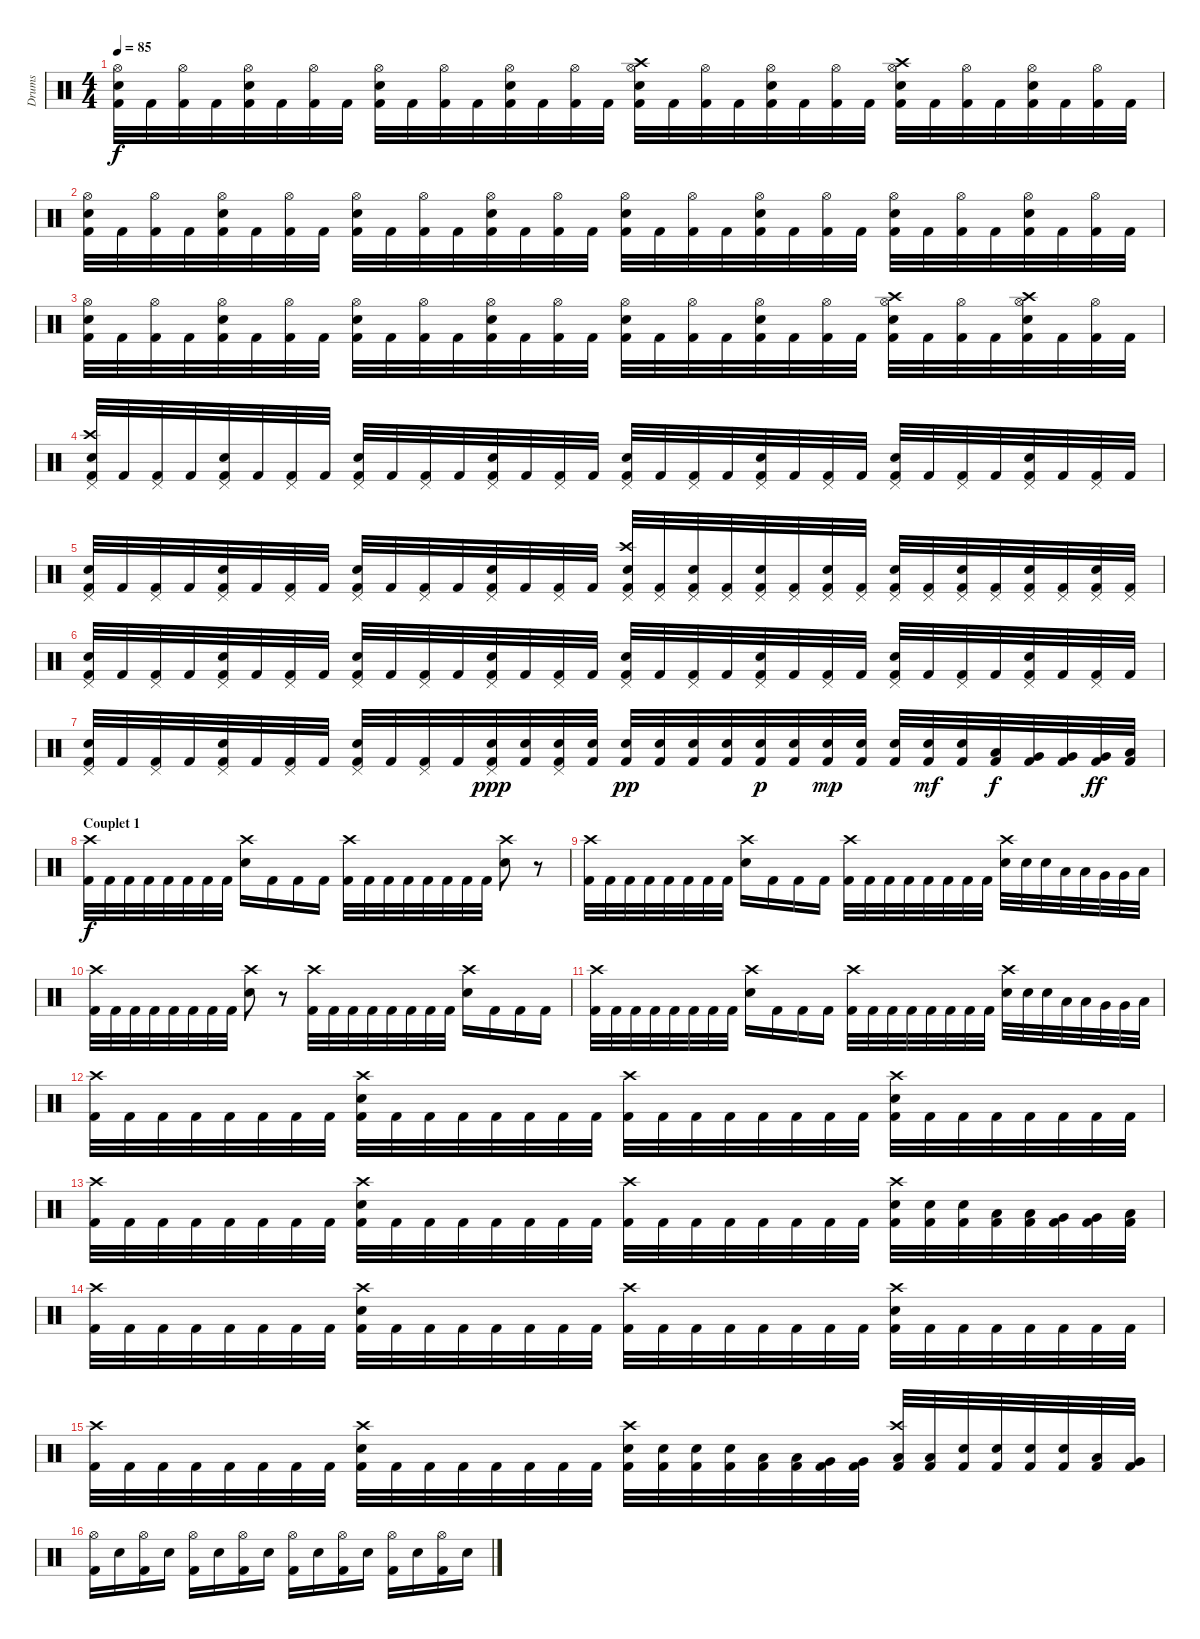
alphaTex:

\track ("Drums" "Drums") {instrument percussion}
\staff {score}
\articulation defaults
\ts (4 4)
\tempo 85
\clef neutral
\ks c
("Hi-Hat (open)" "Electric Snare (hit)" "Kick (hit) 2").32{dy f} "Kick (hit) 2".32 ("Hi-Hat (open)" "Kick (hit) 2").32 "Kick (hit) 2".32 ("Hi-Hat (open)" "Electric Snare (hit)" "Kick (hit) 2").32 "Kick (hit) 2".32 ("Hi-Hat (open)" "Kick (hit) 2").32 "Kick (hit) 2".32 ("Hi-Hat (open)" "Electric Snare (hit)" "Kick (hit) 2").32 "Kick (hit) 2".32 ("Hi-Hat (open)" "Kick (hit) 2").32 "Kick (hit) 2".32 ("Hi-Hat (open)" "Electric Snare (hit)" "Kick (hit) 2").32 "Kick (hit) 2".32 ("Hi-Hat (open)" "Kick (hit) 2").32 "Kick (hit) 2".32 ("Hi-Hat (open)" "Electric Snare (hit)" "Crash high (hit)" "Kick (hit) 2").32 "Kick (hit) 2".32 ("Hi-Hat (open)" "Kick (hit) 2").32 "Kick (hit) 2".32 ("Hi-Hat (open)" "Electric Snare (hit)" "Kick (hit) 2").32 "Kick (hit) 2".32 ("Hi-Hat (open)" "Kick (hit) 2").32 "Kick (hit) 2".32 ("Hi-Hat (open)" "Electric Snare (hit)" "Crash high (hit)" "Kick (hit) 2").32 "Kick (hit) 2".32 ("Hi-Hat (open)" "Kick (hit) 2").32 "Kick (hit) 2".32 ("Hi-Hat (open)" "Electric Snare (hit)" "Kick (hit) 2").32 "Kick (hit) 2".32 ("Hi-Hat (open)" "Kick (hit) 2").32 "Kick (hit) 2".32 |
("Hi-Hat (open)" "Electric Snare (hit)" "Kick (hit) 2").32 "Kick (hit) 2".32 ("Hi-Hat (open)" "Kick (hit) 2").32 "Kick (hit) 2".32 ("Hi-Hat (open)" "Electric Snare (hit)" "Kick (hit) 2").32 "Kick (hit) 2".32 ("Hi-Hat (open)" "Kick (hit) 2").32 "Kick (hit) 2".32 ("Hi-Hat (open)" "Electric Snare (hit)" "Kick (hit) 2").32 "Kick (hit) 2".32 ("Hi-Hat (open)" "Kick (hit) 2").32 "Kick (hit) 2".32 ("Hi-Hat (open)" "Electric Snare (hit)" "Kick (hit) 2").32 "Kick (hit) 2".32 ("Hi-Hat (open)" "Kick (hit) 2").32 "Kick (hit) 2".32 ("Hi-Hat (open)" "Electric Snare (hit)" "Kick (hit) 2").32 "Kick (hit) 2".32 ("Hi-Hat (open)" "Kick (hit) 2").32 "Kick (hit) 2".32 ("Hi-Hat (open)" "Electric Snare (hit)" "Kick (hit) 2").32 "Kick (hit) 2".32 ("Hi-Hat (open)" "Kick (hit) 2").32 "Kick (hit) 2".32 ("Hi-Hat (open)" "Electric Snare (hit)" "Kick (hit) 2").32 "Kick (hit) 2".32 ("Hi-Hat (open)" "Kick (hit) 2").32 "Kick (hit) 2".32 ("Hi-Hat (open)" "Electric Snare (hit)" "Kick (hit) 2").32 "Kick (hit) 2".32 ("Hi-Hat (open)" "Kick (hit) 2").32 "Kick (hit) 2".32 |
("Hi-Hat (open)" "Electric Snare (hit)" "Kick (hit) 2").32 "Kick (hit) 2".32 ("Hi-Hat (open)" "Kick (hit) 2").32 "Kick (hit) 2".32 ("Hi-Hat (open)" "Electric Snare (hit)" "Kick (hit) 2").32 "Kick (hit) 2".32 ("Hi-Hat (open)" "Kick (hit) 2").32 "Kick (hit) 2".32 ("Hi-Hat (open)" "Electric Snare (hit)" "Kick (hit) 2").32 "Kick (hit) 2".32 ("Hi-Hat (open)" "Kick (hit) 2").32 "Kick (hit) 2".32 ("Hi-Hat (open)" "Electric Snare (hit)" "Kick (hit) 2").32 "Kick (hit) 2".32 ("Hi-Hat (open)" "Kick (hit) 2").32 "Kick (hit) 2".32 ("Hi-Hat (open)" "Electric Snare (hit)" "Kick (hit) 2").32 "Kick (hit) 2".32 ("Hi-Hat (open)" "Kick (hit) 2").32 "Kick (hit) 2".32 ("Hi-Hat (open)" "Electric Snare (hit)" "Kick (hit) 2").32 "Kick (hit) 2".32 ("Hi-Hat (open)" "Kick (hit) 2").32 "Kick (hit) 2".32 ("Hi-Hat (open)" "Electric Snare (hit)" "Crash high (hit)" "Kick (hit) 2").32 "Kick (hit) 2".32 ("Hi-Hat (open)" "Kick (hit) 2").32 "Kick (hit) 2".32 ("Hi-Hat (open)" "Electric Snare (hit)" "Crash high (hit)" "Kick (hit) 2").32 "Kick (hit) 2".32 ("Hi-Hat (open)" "Kick (hit) 2").32 "Kick (hit) 2".32 |
("Pedal Hi-Hat (hit)" "Electric Snare (hit)" "Crash high (hit)" "Kick (hit) 2").32 "Kick (hit) 2".32 ("Pedal Hi-Hat (hit)" "Kick (hit) 2").32 "Kick (hit) 2".32 ("Pedal Hi-Hat (hit)" "Electric Snare (hit)" "Kick (hit) 2").32 "Kick (hit) 2".32 ("Pedal Hi-Hat (hit)" "Kick (hit) 2").32 "Kick (hit) 2".32 ("Pedal Hi-Hat (hit)" "Electric Snare (hit)" "Kick (hit) 2").32 "Kick (hit) 2".32 ("Pedal Hi-Hat (hit)" "Kick (hit) 2").32 "Kick (hit) 2".32 ("Pedal Hi-Hat (hit)" "Electric Snare (hit)" "Kick (hit) 2").32 "Kick (hit) 2".32 ("Pedal Hi-Hat (hit)" "Kick (hit) 2").32 "Kick (hit) 2".32 ("Pedal Hi-Hat (hit)" "Electric Snare (hit)" "Kick (hit) 2").32 "Kick (hit) 2".32 ("Pedal Hi-Hat (hit)" "Kick (hit) 2").32 "Kick (hit) 2".32 ("Pedal Hi-Hat (hit)" "Electric Snare (hit)" "Kick (hit) 2").32 "Kick (hit) 2".32 ("Pedal Hi-Hat (hit)" "Kick (hit) 2").32 "Kick (hit) 2".32 ("Pedal Hi-Hat (hit)" "Electric Snare (hit)" "Kick (hit) 2").32 "Kick (hit) 2".32 ("Pedal Hi-Hat (hit)" "Kick (hit) 2").32 "Kick (hit) 2".32 ("Pedal Hi-Hat (hit)" "Electric Snare (hit)" "Kick (hit) 2").32 "Kick (hit) 2".32 ("Pedal Hi-Hat (hit)" "Kick (hit) 2").32 "Kick (hit) 2".32 |
("Pedal Hi-Hat (hit)" "Electric Snare (hit)" "Kick (hit) 2").32 "Kick (hit) 2".32 ("Pedal Hi-Hat (hit)" "Kick (hit) 2").32 "Kick (hit) 2".32 ("Pedal Hi-Hat (hit)" "Electric Snare (hit)" "Kick (hit) 2").32 "Kick (hit) 2".32 ("Pedal Hi-Hat (hit)" "Kick (hit) 2").32 "Kick (hit) 2".32 ("Pedal Hi-Hat (hit)" "Electric Snare (hit)" "Kick (hit) 2").32 "Kick (hit) 2".32 ("Pedal Hi-Hat (hit)" "Kick (hit) 2").32 "Kick (hit) 2".32 ("Pedal Hi-Hat (hit)" "Electric Snare (hit)" "Kick (hit) 2").32 "Kick (hit) 2".32 ("Pedal Hi-Hat (hit)" "Kick (hit) 2").32 "Kick (hit) 2".32 ("Pedal Hi-Hat (hit)" "Electric Snare (hit)" "Crash high (hit)" "Kick (hit) 2").32 ("Pedal Hi-Hat (hit)" "Kick (hit) 2").32 ("Pedal Hi-Hat (hit)" "Electric Snare (hit)" "Kick (hit) 2").32 ("Pedal Hi-Hat (hit)" "Kick (hit) 2").32 ("Pedal Hi-Hat (hit)" "Electric Snare (hit)" "Kick (hit) 2").32 ("Pedal Hi-Hat (hit)" "Kick (hit) 2").32 ("Pedal Hi-Hat (hit)" "Electric Snare (hit)" "Kick (hit) 2").32 ("Pedal Hi-Hat (hit)" "Kick (hit) 2").32 ("Pedal Hi-Hat (hit)" "Electric Snare (hit)" "Kick (hit) 2").32 ("Pedal Hi-Hat (hit)" "Kick (hit) 2").32 ("Pedal Hi-Hat (hit)" "Electric Snare (hit)" "Kick (hit) 2").32 ("Pedal Hi-Hat (hit)" "Kick (hit) 2").32 ("Pedal Hi-Hat (hit)" "Electric Snare (hit)" "Kick (hit) 2").32 ("Pedal Hi-Hat (hit)" "Kick (hit) 2").32 ("Pedal Hi-Hat (hit)" "Electric Snare (hit)" "Kick (hit) 2").32 ("Pedal Hi-Hat (hit)" "Kick (hit) 2").32 |
("Pedal Hi-Hat (hit)" "Electric Snare (hit)" "Kick (hit) 2").32 "Kick (hit) 2".32 ("Pedal Hi-Hat (hit)" "Kick (hit) 2").32 "Kick (hit) 2".32 ("Pedal Hi-Hat (hit)" "Electric Snare (hit)" "Kick (hit) 2").32 "Kick (hit) 2".32 ("Pedal Hi-Hat (hit)" "Kick (hit) 2").32 "Kick (hit) 2".32 ("Pedal Hi-Hat (hit)" "Electric Snare (hit)" "Kick (hit) 2").32 "Kick (hit) 2".32 ("Pedal Hi-Hat (hit)" "Kick (hit) 2").32 "Kick (hit) 2".32 ("Pedal Hi-Hat (hit)" "Electric Snare (hit)" "Kick (hit) 2").32 "Kick (hit) 2".32 ("Pedal Hi-Hat (hit)" "Kick (hit) 2").32 "Kick (hit) 2".32 ("Pedal Hi-Hat (hit)" "Electric Snare (hit)" "Kick (hit) 2").32 "Kick (hit) 2".32 ("Pedal Hi-Hat (hit)" "Kick (hit) 2").32 "Kick (hit) 2".32 ("Pedal Hi-Hat (hit)" "Electric Snare (hit)" "Kick (hit) 2").32 "Kick (hit) 2".32 ("Pedal Hi-Hat (hit)" "Kick (hit) 2").32 "Kick (hit) 2".32 ("Pedal Hi-Hat (hit)" "Electric Snare (hit)" "Kick (hit) 2").32 "Kick (hit) 2".32 ("Pedal Hi-Hat (hit)" "Kick (hit) 2").32 "Kick (hit) 2".32 ("Pedal Hi-Hat (hit)" "Electric Snare (hit)" "Kick (hit) 2").32 "Kick (hit) 2".32 ("Pedal Hi-Hat (hit)" "Kick (hit) 2").32 "Kick (hit) 2".32 |
("Pedal Hi-Hat (hit)" "Electric Snare (hit)" "Kick (hit) 2").32 "Kick (hit) 2".32 ("Pedal Hi-Hat (hit)" "Kick (hit) 2").32 "Kick (hit) 2".32 ("Pedal Hi-Hat (hit)" "Electric Snare (hit)" "Kick (hit) 2").32 "Kick (hit) 2".32 ("Pedal Hi-Hat (hit)" "Kick (hit) 2").32 "Kick (hit) 2".32 ("Pedal Hi-Hat (hit)" "Electric Snare (hit)" "Kick (hit) 2").32 "Kick (hit) 2".32 ("Pedal Hi-Hat (hit)" "Kick (hit) 2").32 "Kick (hit) 2".32 ("Pedal Hi-Hat (hit)" "Electric Snare (hit)" "Kick (hit) 2").32{dy ppp} ("Electric Snare (hit)" "Kick (hit) 2").32 ("Pedal Hi-Hat (hit)" "Electric Snare (hit)" "Kick (hit) 2").32 ("Electric Snare (hit)" "Kick (hit) 2").32 ("Electric Snare (hit)" "Kick (hit) 2").32{dy pp} ("Electric Snare (hit)" "Kick (hit) 2").32 ("Electric Snare (hit)" "Kick (hit) 2").32 ("Electric Snare (hit)" "Kick (hit) 2").32 ("Electric Snare (hit)" "Kick (hit) 2").32{dy p} ("Electric Snare (hit)" "Kick (hit) 2").32 ("Electric Snare (hit)" "Kick (hit) 2").32{dy mp} ("Electric Snare (hit)" "Kick (hit) 2").32 ("Electric Snare (hit)" "Kick (hit) 2").32 ("Electric Snare (hit)" "Kick (hit) 2").32{dy mf} ("Electric Snare (hit)" "Kick (hit) 2").32 ("Low Tom (hit)" "Kick (hit) 2").32{dy f} ("Very Low Tom (hit)" "Kick (hit) 2").32 ("Very Low Tom (hit)" "Kick (hit) 2").32 ("Very Low Tom (hit)" "Kick (hit) 2").32{dy ff} ("Low Floor Tom (hit)" "Kick (hit) 2").32 |
\section ("" "Couplet 1")
("Crash high (hit)" "Kick (hit) 2").32{dy f} "Kick (hit) 2".32 "Kick (hit) 2".32 "Kick (hit) 2".32 "Kick (hit) 2".32 "Kick (hit) 2".32 "Kick (hit) 2".32 "Kick (hit) 2".32 ("Crash high (hit)" "Electric Snare (hit)").16 "Kick (hit) 2".16 "Kick (hit) 2".16 "Kick (hit) 2".16 ("Crash high (hit)" "Kick (hit) 2").32 "Kick (hit) 2".32 "Kick (hit) 2".32 "Kick (hit) 2".32 "Kick (hit) 2".32 "Kick (hit) 2".32 "Kick (hit) 2".32 "Kick (hit) 2".32 ("Crash high (hit)" "Electric Snare (hit)").8 r.8 |
("Crash high (hit)" "Kick (hit) 2").32 "Kick (hit) 2".32 "Kick (hit) 2".32 "Kick (hit) 2".32 "Kick (hit) 2".32 "Kick (hit) 2".32 "Kick (hit) 2".32 "Kick (hit) 2".32 ("Crash high (hit)" "Electric Snare (hit)").16 "Kick (hit) 2".16 "Kick (hit) 2".16 "Kick (hit) 2".16 ("Crash high (hit)" "Kick (hit) 2").32 "Kick (hit) 2".32 "Kick (hit) 2".32 "Kick (hit) 2".32 "Kick (hit) 2".32 "Kick (hit) 2".32 "Kick (hit) 2".32 "Kick (hit) 2".32 ("Crash high (hit)" "Electric Snare (hit)").32 "Electric Snare (hit)".32 "Electric Snare (hit)".32 "Low Tom (hit)".32 "Low Tom (hit)".32 "Very Low Tom (hit)".32 "Very Low Tom (hit)".32 "Low Floor Tom (hit)".32 |
("Crash high (hit)" "Kick (hit) 2").32 "Kick (hit) 2".32 "Kick (hit) 2".32 "Kick (hit) 2".32 "Kick (hit) 2".32 "Kick (hit) 2".32 "Kick (hit) 2".32 "Kick (hit) 2".32 ("Crash high (hit)" "Electric Snare (hit)").8 r.8 ("Crash high (hit)" "Kick (hit) 2").32 "Kick (hit) 2".32 "Kick (hit) 2".32 "Kick (hit) 2".32 "Kick (hit) 2".32 "Kick (hit) 2".32 "Kick (hit) 2".32 "Kick (hit) 2".32 ("Crash high (hit)" "Electric Snare (hit)").16 "Kick (hit) 2".16 "Kick (hit) 2".16 "Kick (hit) 2".16 |
("Crash high (hit)" "Kick (hit) 2").32 "Kick (hit) 2".32 "Kick (hit) 2".32 "Kick (hit) 2".32 "Kick (hit) 2".32 "Kick (hit) 2".32 "Kick (hit) 2".32 "Kick (hit) 2".32 ("Crash high (hit)" "Electric Snare (hit)").16 "Kick (hit) 2".16 "Kick (hit) 2".16 "Kick (hit) 2".16 ("Crash high (hit)" "Kick (hit) 2").32 "Kick (hit) 2".32 "Kick (hit) 2".32 "Kick (hit) 2".32 "Kick (hit) 2".32 "Kick (hit) 2".32 "Kick (hit) 2".32 "Kick (hit) 2".32 ("Crash high (hit)" "Electric Snare (hit)").32 "Electric Snare (hit)".32 "Electric Snare (hit)".32 "Low Tom (hit)".32 "Low Tom (hit)".32 "Very Low Tom (hit)".32 "Very Low Tom (hit)".32 "Low Floor Tom (hit)".32 |
("Crash high (hit)" "Kick (hit) 2").32 "Kick (hit) 2".32 "Kick (hit) 2".32 "Kick (hit) 2".32 "Kick (hit) 2".32 "Kick (hit) 2".32 "Kick (hit) 2".32 "Kick (hit) 2".32 ("Crash high (hit)" "Electric Snare (hit)" "Kick (hit) 2").32 "Kick (hit) 2".32 "Kick (hit) 2".32 "Kick (hit) 2".32 "Kick (hit) 2".32 "Kick (hit) 2".32 "Kick (hit) 2".32 "Kick (hit) 2".32 ("Crash high (hit)" "Kick (hit) 2").32 "Kick (hit) 2".32 "Kick (hit) 2".32 "Kick (hit) 2".32 "Kick (hit) 2".32 "Kick (hit) 2".32 "Kick (hit) 2".32 "Kick (hit) 2".32 ("Crash high (hit)" "Electric Snare (hit)" "Kick (hit) 2").32 "Kick (hit) 2".32 "Kick (hit) 2".32 "Kick (hit) 2".32 "Kick (hit) 2".32 "Kick (hit) 2".32 "Kick (hit) 2".32 "Kick (hit) 2".32 |
("Crash high (hit)" "Kick (hit) 2").32 "Kick (hit) 2".32 "Kick (hit) 2".32 "Kick (hit) 2".32 "Kick (hit) 2".32 "Kick (hit) 2".32 "Kick (hit) 2".32 "Kick (hit) 2".32 ("Crash high (hit)" "Electric Snare (hit)" "Kick (hit) 2").32 "Kick (hit) 2".32 "Kick (hit) 2".32 "Kick (hit) 2".32 "Kick (hit) 2".32 "Kick (hit) 2".32 "Kick (hit) 2".32 "Kick (hit) 2".32 ("Crash high (hit)" "Kick (hit) 2").32 "Kick (hit) 2".32 "Kick (hit) 2".32 "Kick (hit) 2".32 "Kick (hit) 2".32 "Kick (hit) 2".32 "Kick (hit) 2".32 "Kick (hit) 2".32 ("Crash high (hit)" "Electric Snare (hit)" "Kick (hit) 2").32 ("Electric Snare (hit)" "Kick (hit) 2").32 ("Electric Snare (hit)" "Kick (hit) 2").32 ("Low Tom (hit)" "Kick (hit) 2").32 ("Low Tom (hit)" "Kick (hit) 2").32 ("Very Low Tom (hit)" "Kick (hit) 2").32 ("Very Low Tom (hit)" "Kick (hit) 2").32 ("Low Floor Tom (hit)" "Kick (hit) 2").32 |
("Crash high (hit)" "Kick (hit) 2").32 "Kick (hit) 2".32 "Kick (hit) 2".32 "Kick (hit) 2".32 "Kick (hit) 2".32 "Kick (hit) 2".32 "Kick (hit) 2".32 "Kick (hit) 2".32 ("Crash high (hit)" "Electric Snare (hit)" "Kick (hit) 2").32 "Kick (hit) 2".32 "Kick (hit) 2".32 "Kick (hit) 2".32 "Kick (hit) 2".32 "Kick (hit) 2".32 "Kick (hit) 2".32 "Kick (hit) 2".32 ("Crash high (hit)" "Kick (hit) 2").32 "Kick (hit) 2".32 "Kick (hit) 2".32 "Kick (hit) 2".32 "Kick (hit) 2".32 "Kick (hit) 2".32 "Kick (hit) 2".32 "Kick (hit) 2".32 ("Crash high (hit)" "Electric Snare (hit)" "Kick (hit) 2").32 "Kick (hit) 2".32 "Kick (hit) 2".32 "Kick (hit) 2".32 "Kick (hit) 2".32 "Kick (hit) 2".32 "Kick (hit) 2".32 "Kick (hit) 2".32 |
("Crash high (hit)" "Kick (hit) 2").32 "Kick (hit) 2".32 "Kick (hit) 2".32 "Kick (hit) 2".32 "Kick (hit) 2".32 "Kick (hit) 2".32 "Kick (hit) 2".32 "Kick (hit) 2".32 ("Crash high (hit)" "Electric Snare (hit)" "Kick (hit) 2").32 "Kick (hit) 2".32 "Kick (hit) 2".32 "Kick (hit) 2".32 "Kick (hit) 2".32 "Kick (hit) 2".32 "Kick (hit) 2".32 "Kick (hit) 2".32 ("Crash high (hit)" "Electric Snare (hit)" "Kick (hit) 2").32 ("Electric Snare (hit)" "Kick (hit) 2").32 ("Electric Snare (hit)" "Kick (hit) 2").32 ("Electric Snare (hit)" "Kick (hit) 2").32 ("Low Tom (hit)" "Kick (hit) 2").32 ("Low Tom (hit)" "Kick (hit) 2").32 ("Very Low Tom (hit)" "Kick (hit) 2").32 ("Very Low Tom (hit)" "Kick (hit) 2").32 ("Crash high (hit)" "Low Floor Tom (hit)" "Kick (hit) 2").32 ("Low Floor Tom (hit)" "Kick (hit) 2").32 ("Electric Snare (hit)" "Kick (hit) 2").32 ("Electric Snare (hit)" "Kick (hit) 2").32 ("Electric Snare (hit)" "Kick (hit) 2").32 ("Electric Snare (hit)" "Kick (hit) 2").32 ("Low Tom (hit)" "Kick (hit) 2").32 ("Very Low Tom (hit)" "Kick (hit) 2").32 |
("Hi-Hat (open)" "Kick (hit) 2").16 "Electric Snare (hit)".16 ("Hi-Hat (open)" "Kick (hit) 2").16 "Electric Snare (hit)".16 ("Hi-Hat (open)" "Kick (hit) 2").16 "Electric Snare (hit)".16 ("Hi-Hat (open)" "Kick (hit) 2").16 "Electric Snare (hit)".16 ("Hi-Hat (open)" "Kick (hit) 2").16 "Electric Snare (hit)".16 ("Hi-Hat (open)" "Kick (hit) 2").16 "Electric Snare (hit)".16 ("Hi-Hat (open)" "Kick (hit) 2").16 "Electric Snare (hit)".16 ("Hi-Hat (open)" "Kick (hit) 2").16 "Electric Snare (hit)".16
